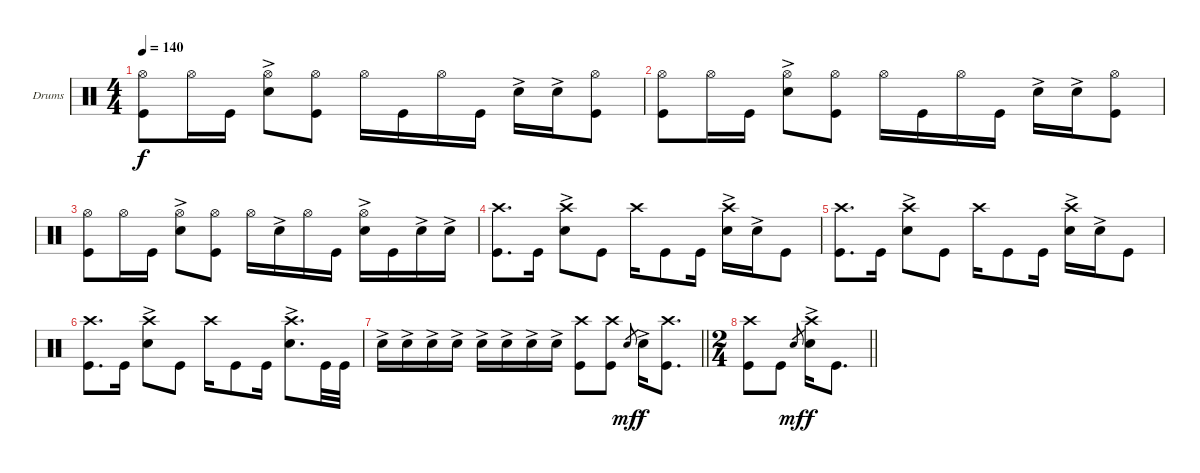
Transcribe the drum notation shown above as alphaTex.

\bracketExtendMode groupsimilarinstruments
\firstSystemTrackNameOrientation horizontal
\otherSystemsTrackNameOrientation horizontal
\track ("Drumkit" "Drums") {instrument percussion}
\staff {score}
\articulation defaults
\ts (4 4)
\tempo 140
\clef neutral
\ks c
("Hi-Hat (open)" "Kick (hit)").8{dy f} "Hi-Hat (open)".16 "Kick (hit)".16 ("Hi-Hat (open)" "Snare (hit) 2"{ac}).8 ("Hi-Hat (open)" "Kick (hit)").8 "Hi-Hat (open)".16 "Kick (hit)".16 "Hi-Hat (open)".16 "Kick (hit)".16 "Snare (hit) 2"{ac}.16 "Snare (hit) 2"{ac}.16 ("Hi-Hat (open)" "Kick (hit)").8 |
("Hi-Hat (open)" "Kick (hit)").8 "Hi-Hat (open)".16 "Kick (hit)".16 ("Hi-Hat (open)" "Snare (hit) 2"{ac}).8 ("Hi-Hat (open)" "Kick (hit)").8 "Hi-Hat (open)".16 "Kick (hit)".16 "Hi-Hat (open)".16 "Kick (hit)".16 "Snare (hit) 2"{ac}.16 "Snare (hit) 2"{ac}.16 ("Hi-Hat (open)" "Kick (hit)").8 |
("Hi-Hat (open)" "Kick (hit)").8 "Hi-Hat (open)".16 "Kick (hit)".16 ("Hi-Hat (open)" "Snare (hit) 2"{ac}).8 ("Hi-Hat (open)" "Kick (hit)").8 "Hi-Hat (open)".16 "Snare (hit) 2"{ac}.16 "Hi-Hat (open)".16 "Kick (hit)".16 ("Hi-Hat (open)" "Snare (hit) 2"{ac}).16 "Kick (hit)".16 "Snare (hit) 2"{ac}.16 "Snare (hit) 2"{ac}.16 |
("Crash high (hit)" "Kick (hit)").8{d} "Kick (hit)".16 ("Crash high (hit)" "Snare (hit) 2"{ac}).8 "Kick (hit)".8 "Crash high (hit)".16 "Kick (hit)".8 "Kick (hit)".16 ("Crash high (hit)" "Snare (hit) 2"{ac}).16 "Snare (hit) 2"{ac}.16 "Kick (hit)".8 |
("Crash high (hit)" "Kick (hit)").8{d} "Kick (hit)".16 ("Crash high (hit)" "Snare (hit) 2"{ac}).8 "Kick (hit)".8 "Crash high (hit)".16 "Kick (hit)".8 "Kick (hit)".16 ("Crash high (hit)" "Snare (hit) 2"{ac}).16 "Snare (hit) 2"{ac}.16 "Kick (hit)".8 |
("Crash high (hit)" "Kick (hit)").8{d} "Kick (hit)".16 ("Crash high (hit)" "Snare (hit) 2"{ac}).8 "Kick (hit)".8 "Crash high (hit)".16 "Kick (hit)".8 "Kick (hit)".16 ("Crash high (hit)" "Snare (hit) 2"{ac}).8{d} "Kick (hit)".32 "Kick (hit)".32 |
\barLineRight lightlight "Snare (hit) 2"{ac}.16 "Snare (hit) 2"{ac}.16 "Snare (hit) 2"{ac}.16 "Snare (hit) 2"{ac}.16 "Snare (hit) 2"{ac}.16 "Snare (hit) 2"{ac}.16 "Snare (hit) 2"{ac}.16 "Snare (hit) 2"{ac}.16
("Crash high (hit)" "Kick (hit)").8 ("Crash high (hit)" "Kick (hit)").8 "Snare (hit) 2".8{gr dy mf} "Snare (hit) 2"{ac}.16{dy f} ("Crash high (hit)" "Kick (hit)").8{d} |
\ts (2 4)
\beaming (8 2 2)
\barLineRight lightlight
("Crash high (hit)" "Kick (hit)").8 "Kick (hit)".8 "Snare (hit) 2".8{gr dy mf} ("Snare (hit) 2"{ac} "Crash high (hit)").16{dy f} "Kick (hit)".8{d}
